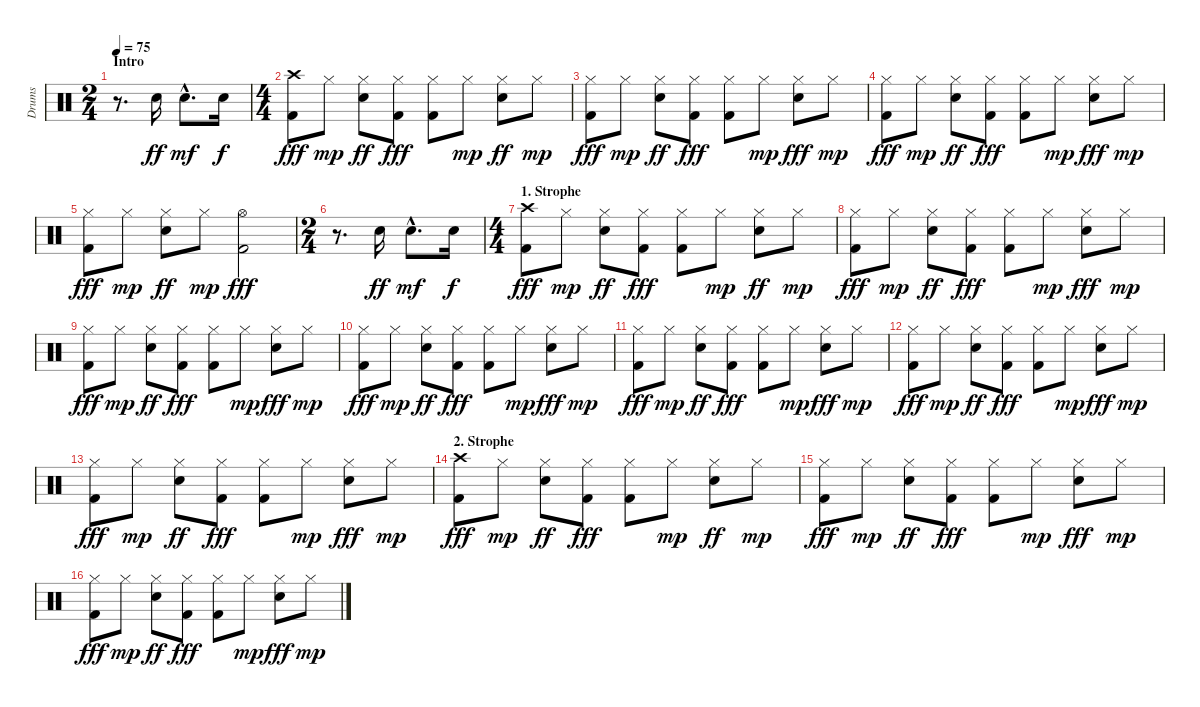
\track ("Drums" "Drums") {instrument percussion}
\staff {score}
\articulation defaults
\ts (2 4)
\section ("" "Intro")
\tempo 75
\clef neutral
\ks c
r.8{d dy ff} "Electric Snare (hit)".16 "Electric Snare (hit)"{hac}.8{d dy mf} "Electric Snare (hit)".16{dy f} |
\ts (4 4)
("Crash high (hit)" "Kick (hit) 2").8{dy fff} "Hi-Hat (closed)".8{dy mp} ("Hi-Hat (closed)" "Electric Snare (hit)").8{dy ff} ("Hi-Hat (closed)" "Kick (hit) 2").8{dy fff} ("Hi-Hat (closed)" "Kick (hit) 2").8 "Hi-Hat (closed)".8{dy mp} ("Hi-Hat (closed)" "Electric Snare (hit)").8{dy ff} "Hi-Hat (closed)".8{dy mp} |
("Hi-Hat (closed)" "Kick (hit) 2").8{dy fff} "Hi-Hat (closed)".8{dy mp} ("Hi-Hat (closed)" "Electric Snare (hit)").8{dy ff} ("Hi-Hat (closed)" "Kick (hit) 2").8{dy fff} ("Hi-Hat (closed)" "Kick (hit) 2").8 "Hi-Hat (closed)".8{dy mp} ("Hi-Hat (closed)" "Electric Snare (hit)").8{dy fff} "Hi-Hat (closed)".8{dy mp} |
("Hi-Hat (closed)" "Kick (hit) 2").8{dy fff} "Hi-Hat (closed)".8{dy mp} ("Hi-Hat (closed)" "Electric Snare (hit)").8{dy ff} ("Hi-Hat (closed)" "Kick (hit) 2").8{dy fff} ("Hi-Hat (closed)" "Kick (hit) 2").8 "Hi-Hat (closed)".8{dy mp} ("Hi-Hat (closed)" "Electric Snare (hit)").8{dy fff} "Hi-Hat (closed)".8{dy mp} |
("Hi-Hat (closed)" "Kick (hit) 2").8{dy fff} "Hi-Hat (closed)".8{dy mp} ("Hi-Hat (closed)" "Electric Snare (hit)").8{dy ff} "Hi-Hat (closed)".8{dy mp} ("Hi-Hat (open)" "Kick (hit) 2").2{dy fff} |
\ts (2 4)
r.8{d} "Electric Snare (hit)".16{dy ff} "Electric Snare (hit)"{hac}.8{d dy mf} "Electric Snare (hit)".16{dy f} |
\ts (4 4)
\section ("" "1. Strophe")
("Crash high (hit)" "Kick (hit) 2").8{dy fff} "Hi-Hat (closed)".8{dy mp} ("Hi-Hat (closed)" "Electric Snare (hit)").8{dy ff} ("Hi-Hat (closed)" "Kick (hit) 2").8{dy fff} ("Hi-Hat (closed)" "Kick (hit) 2").8 "Hi-Hat (closed)".8{dy mp} ("Hi-Hat (closed)" "Electric Snare (hit)").8{dy ff} "Hi-Hat (closed)".8{dy mp} |
("Hi-Hat (closed)" "Kick (hit) 2").8{dy fff} "Hi-Hat (closed)".8{dy mp} ("Hi-Hat (closed)" "Electric Snare (hit)").8{dy ff} ("Hi-Hat (closed)" "Kick (hit) 2").8{dy fff} ("Hi-Hat (closed)" "Kick (hit) 2").8 "Hi-Hat (closed)".8{dy mp} ("Hi-Hat (closed)" "Electric Snare (hit)").8{dy fff} "Hi-Hat (closed)".8{dy mp} |
("Hi-Hat (closed)" "Kick (hit) 2").8{dy fff} "Hi-Hat (closed)".8{dy mp} ("Hi-Hat (closed)" "Electric Snare (hit)").8{dy ff} ("Hi-Hat (closed)" "Kick (hit) 2").8{dy fff} ("Hi-Hat (closed)" "Kick (hit) 2").8 "Hi-Hat (closed)".8{dy mp} ("Hi-Hat (closed)" "Electric Snare (hit)").8{dy fff} "Hi-Hat (closed)".8{dy mp} |
("Hi-Hat (closed)" "Kick (hit) 2").8{dy fff} "Hi-Hat (closed)".8{dy mp} ("Hi-Hat (closed)" "Electric Snare (hit)").8{dy ff} ("Hi-Hat (closed)" "Kick (hit) 2").8{dy fff} ("Hi-Hat (closed)" "Kick (hit) 2").8 "Hi-Hat (closed)".8{dy mp} ("Hi-Hat (closed)" "Electric Snare (hit)").8{dy fff} "Hi-Hat (closed)".8{dy mp} |
("Hi-Hat (closed)" "Kick (hit) 2").8{dy fff} "Hi-Hat (closed)".8{dy mp} ("Hi-Hat (closed)" "Electric Snare (hit)").8{dy ff} ("Hi-Hat (closed)" "Kick (hit) 2").8{dy fff} ("Hi-Hat (closed)" "Kick (hit) 2").8 "Hi-Hat (closed)".8{dy mp} ("Hi-Hat (closed)" "Electric Snare (hit)").8{dy fff} "Hi-Hat (closed)".8{dy mp} |
("Hi-Hat (closed)" "Kick (hit) 2").8{dy fff} "Hi-Hat (closed)".8{dy mp} ("Hi-Hat (closed)" "Electric Snare (hit)").8{dy ff} ("Hi-Hat (closed)" "Kick (hit) 2").8{dy fff} ("Hi-Hat (closed)" "Kick (hit) 2").8 "Hi-Hat (closed)".8{dy mp} ("Hi-Hat (closed)" "Electric Snare (hit)").8{dy fff} "Hi-Hat (closed)".8{dy mp} |
("Hi-Hat (closed)" "Kick (hit) 2").8{dy fff} "Hi-Hat (closed)".8{dy mp} ("Hi-Hat (closed)" "Electric Snare (hit)").8{dy ff} ("Hi-Hat (closed)" "Kick (hit) 2").8{dy fff} ("Hi-Hat (closed)" "Kick (hit) 2").8 "Hi-Hat (closed)".8{dy mp} ("Hi-Hat (closed)" "Electric Snare (hit)").8{dy fff} "Hi-Hat (closed)".8{dy mp} |
\section ("" "2. Strophe")
("Crash high (hit)" "Kick (hit) 2").8{dy fff} "Hi-Hat (closed)".8{dy mp} ("Hi-Hat (closed)" "Electric Snare (hit)").8{dy ff} ("Hi-Hat (closed)" "Kick (hit) 2").8{dy fff} ("Hi-Hat (closed)" "Kick (hit) 2").8 "Hi-Hat (closed)".8{dy mp} ("Hi-Hat (closed)" "Electric Snare (hit)").8{dy ff} "Hi-Hat (closed)".8{dy mp} |
("Hi-Hat (closed)" "Kick (hit) 2").8{dy fff} "Hi-Hat (closed)".8{dy mp} ("Hi-Hat (closed)" "Electric Snare (hit)").8{dy ff} ("Hi-Hat (closed)" "Kick (hit) 2").8{dy fff} ("Hi-Hat (closed)" "Kick (hit) 2").8 "Hi-Hat (closed)".8{dy mp} ("Hi-Hat (closed)" "Electric Snare (hit)").8{dy fff} "Hi-Hat (closed)".8{dy mp} |
("Hi-Hat (closed)" "Kick (hit) 2").8{dy fff} "Hi-Hat (closed)".8{dy mp} ("Hi-Hat (closed)" "Electric Snare (hit)").8{dy ff} ("Hi-Hat (closed)" "Kick (hit) 2").8{dy fff} ("Hi-Hat (closed)" "Kick (hit) 2").8 "Hi-Hat (closed)".8{dy mp} ("Hi-Hat (closed)" "Electric Snare (hit)").8{dy fff} "Hi-Hat (closed)".8{dy mp}
